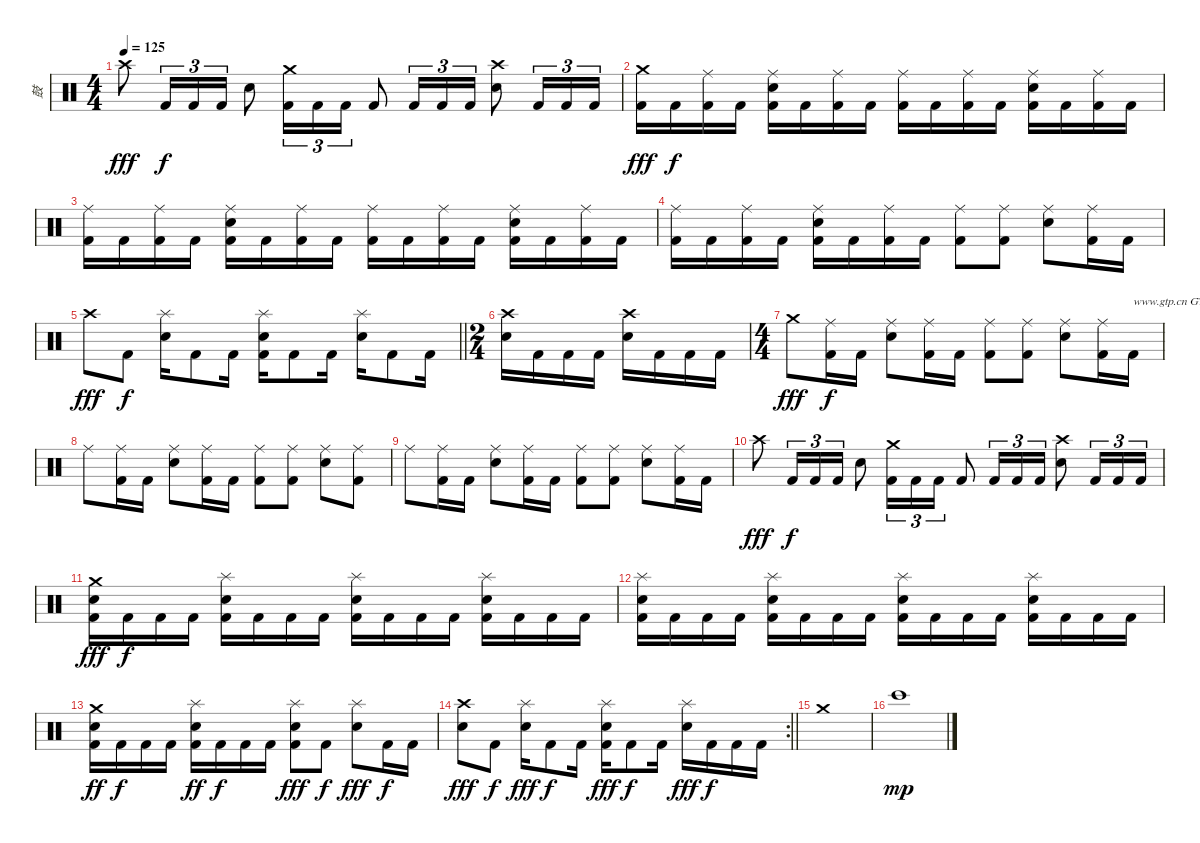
\track ("鼓" "鼓") {instrument percussion}
\staff {score}
\articulation defaults
\ts (4 4)
\tempo 125
\clef neutral
\ks c "Crash high (hit)".8{dy fff} "Kick (hit) 2".16{tu (3 2) dy f} "Kick (hit) 2".16{tu (3 2)} "Kick (hit) 2".16{tu (3 2)} "Electric Snare (hit)".8
("Crash medium (hit)" "Kick (hit) 2").16{tu (3 2)} "Kick (hit) 2".16{tu (3 2)} "Kick (hit) 2".16{tu (3 2)} "Kick (hit) 2".8 "Kick (hit) 2".16{tu (3 2)} "Kick (hit) 2".16{tu (3 2)} "Kick (hit) 2".16{tu (3 2)} ("Crash high (hit)" "Electric Snare (hit)").8 "Kick (hit) 2".16{tu (3 2)} "Kick (hit) 2".16{tu (3 2)} "Kick (hit) 2".16{tu (3 2)} |
("Crash medium (hit)" "Kick (hit) 2").16{dy fff} "Kick (hit) 2".16{dy f} ("Ride (middle)" "Kick (hit) 2").16 "Kick (hit) 2".16 ("Ride (middle)" "Electric Snare (hit)" "Kick (hit) 2").16 "Kick (hit) 2".16 ("Ride (middle)" "Kick (hit) 2").16 "Kick (hit) 2".16 ("Ride (middle)" "Kick (hit) 2").16 "Kick (hit) 2".16 ("Ride (middle)" "Kick (hit) 2").16 "Kick (hit) 2".16 ("Ride (middle)" "Electric Snare (hit)" "Kick (hit) 2").16 "Kick (hit) 2".16 ("Ride (middle)" "Kick (hit) 2").16 "Kick (hit) 2".16 |
("Ride (middle)" "Kick (hit) 2").16 "Kick (hit) 2".16 ("Ride (middle)" "Kick (hit) 2").16 "Kick (hit) 2".16 ("Ride (middle)" "Electric Snare (hit)" "Kick (hit) 2").16 "Kick (hit) 2".16 ("Ride (middle)" "Kick (hit) 2").16 "Kick (hit) 2".16 ("Ride (middle)" "Kick (hit) 2").16 "Kick (hit) 2".16 ("Ride (middle)" "Kick (hit) 2").16 "Kick (hit) 2".16 ("Ride (middle)" "Electric Snare (hit)" "Kick (hit) 2").16 "Kick (hit) 2".16 ("Ride (middle)" "Kick (hit) 2").16 "Kick (hit) 2".16 |
("Ride (middle)" "Kick (hit) 2").16 "Kick (hit) 2".16 ("Ride (middle)" "Kick (hit) 2").16 "Kick (hit) 2".16 ("Ride (middle)" "Electric Snare (hit)" "Kick (hit) 2").16 "Kick (hit) 2".16 ("Ride (middle)" "Kick (hit) 2").16 "Kick (hit) 2".16 ("Ride (middle)" "Kick (hit) 2").8 ("Ride (middle)" "Kick (hit) 2").8 ("Ride (middle)" "Electric Snare (hit)").8 ("Ride (middle)" "Kick (hit) 2").16 "Kick (hit) 2".16 |
\barLineRight lightlight "Crash high (hit)".8{dy fff} "Kick (hit) 2".8{dy f}
("Splash (hit)" "Electric Snare (hit)").16 "Kick (hit) 2".8 "Kick (hit) 2".16 ("Splash (hit)" "Electric Snare (hit)" "Kick (hit) 2").16 "Kick (hit) 2".8 "Kick (hit) 2".16 ("Splash (hit)" "Electric Snare (hit)").16 "Kick (hit) 2".8 "Kick (hit) 2".16 |
\ts (2 4)
("Crash high (hit)" "Electric Snare (hit)").16 "Kick (hit) 2".16 "Kick (hit) 2".16 "Kick (hit) 2".16 ("Crash high (hit)" "Electric Snare (hit)").16 "Kick (hit) 2".16 "Kick (hit) 2".16 "Kick (hit) 2".16 |
\ts (4 4)
"Crash medium (hit)".8{dy fff} ("Ride (middle)" "Kick (hit) 2").16{dy f} "Kick (hit) 2".16 ("Ride (middle)" "Electric Snare (hit)").8 ("Ride (middle)" "Kick (hit) 2").16 "Kick (hit) 2".16 ("Ride (middle)" "Kick (hit) 2").8 ("Ride (middle)" "Kick (hit) 2").8 ("Ride (middle)" "Electric Snare (hit)").8 ("Ride (middle)" "Kick (hit) 2").16 "Kick (hit) 2".16{txt "www.gtp.cn GTP中文网为您提供优秀的谱子"} |
"Ride (middle)".8 ("Ride (middle)" "Kick (hit) 2").16 "Kick (hit) 2".16 ("Ride (middle)" "Electric Snare (hit)").8 ("Ride (middle)" "Kick (hit) 2").16 "Kick (hit) 2".16 ("Ride (middle)" "Kick (hit) 2").8 ("Ride (middle)" "Kick (hit) 2").8 ("Ride (middle)" "Electric Snare (hit)").8 ("Ride (middle)" "Kick (hit) 2").8 |
"Ride (middle)".8 ("Ride (middle)" "Kick (hit) 2").16 "Kick (hit) 2".16 ("Ride (middle)" "Electric Snare (hit)").8 ("Ride (middle)" "Kick (hit) 2").16 "Kick (hit) 2".16 ("Ride (middle)" "Kick (hit) 2").8 ("Ride (middle)" "Kick (hit) 2").8 ("Ride (middle)" "Electric Snare (hit)").8 ("Ride (middle)" "Kick (hit) 2").16 "Kick (hit) 2".16 |
"Crash high (hit)".8{dy fff} "Kick (hit) 2".16{tu (3 2) dy f} "Kick (hit) 2".16{tu (3 2)} "Kick (hit) 2".16{tu (3 2)} "Electric Snare (hit)".8 ("Crash medium (hit)" "Kick (hit) 2").16{tu (3 2)} "Kick (hit) 2".16{tu (3 2)} "Kick (hit) 2".16{tu (3 2)} "Kick (hit) 2".8 "Kick (hit) 2".16{tu (3 2)} "Kick (hit) 2".16{tu (3 2)} "Kick (hit) 2".16{tu (3 2)} ("Crash high (hit)" "Electric Snare (hit)").8 "Kick (hit) 2".16{tu (3 2)} "Kick (hit) 2".16{tu (3 2)} "Kick (hit) 2".16{tu (3 2)} |
("Crash medium (hit)" "Electric Snare (hit)" "Kick (hit) 2").16{dy fff} "Kick (hit) 2".16{dy f} "Kick (hit) 2".16 "Kick (hit) 2".16 ("Splash (hit)" "Electric Snare (hit)" "Kick (hit) 2").16 "Kick (hit) 2".16 "Kick (hit) 2".16 "Kick (hit) 2".16 ("Splash (hit)" "Electric Snare (hit)" "Kick (hit) 2").16 "Kick (hit) 2".16 "Kick (hit) 2".16 "Kick (hit) 2".16 ("Splash (hit)" "Electric Snare (hit)" "Kick (hit) 2").16 "Kick (hit) 2".16 "Kick (hit) 2".16 "Kick (hit) 2".16 |
("Splash (hit)" "Electric Snare (hit)" "Kick (hit) 2").16 "Kick (hit) 2".16 "Kick (hit) 2".16 "Kick (hit) 2".16 ("Splash (hit)" "Electric Snare (hit)" "Kick (hit) 2").16 "Kick (hit) 2".16 "Kick (hit) 2".16 "Kick (hit) 2".16 ("Splash (hit)" "Electric Snare (hit)" "Kick (hit) 2").16 "Kick (hit) 2".16 "Kick (hit) 2".16 "Kick (hit) 2".16 ("Splash (hit)" "Electric Snare (hit)" "Kick (hit) 2").16 "Kick (hit) 2".16 "Kick (hit) 2".16 "Kick (hit) 2".16 |
("Crash medium (hit)" "Electric Snare (hit)" "Kick (hit) 2").16{dy ff} "Kick (hit) 2".16{dy f} "Kick (hit) 2".16 "Kick (hit) 2".16 ("Splash (hit)" "Electric Snare (hit)" "Kick (hit) 2").16{dy ff} "Kick (hit) 2".16{dy f} "Kick (hit) 2".16 "Kick (hit) 2".16 ("Splash (hit)" "Electric Snare (hit)" "Kick (hit) 2").8{dy fff} "Kick (hit) 2".8{dy f} ("Splash (hit)" "Electric Snare (hit)").8{dy fff} "Kick (hit) 2".16{dy f} "Kick (hit) 2".16 |
\rc 2
\barLineRight lightlight
("Crash high (hit)" "Electric Snare (hit)").8{dy fff} "Kick (hit) 2".8{dy f} ("Splash (hit)" "Electric Snare (hit)").16{dy fff} "Kick (hit) 2".8{dy f} "Kick (hit) 2".16 ("Splash (hit)" "Electric Snare (hit)" "Kick (hit) 2").16{dy fff} "Kick (hit) 2".8{dy f} "Kick (hit) 2".16 ("Splash (hit)" "Electric Snare (hit)").16{dy fff} "Kick (hit) 2".16{dy f} "Kick (hit) 2".16 "Kick (hit) 2".16 |
"Crash medium (hit)".1 |
"Bongo High (hit)".1{dy mp}
